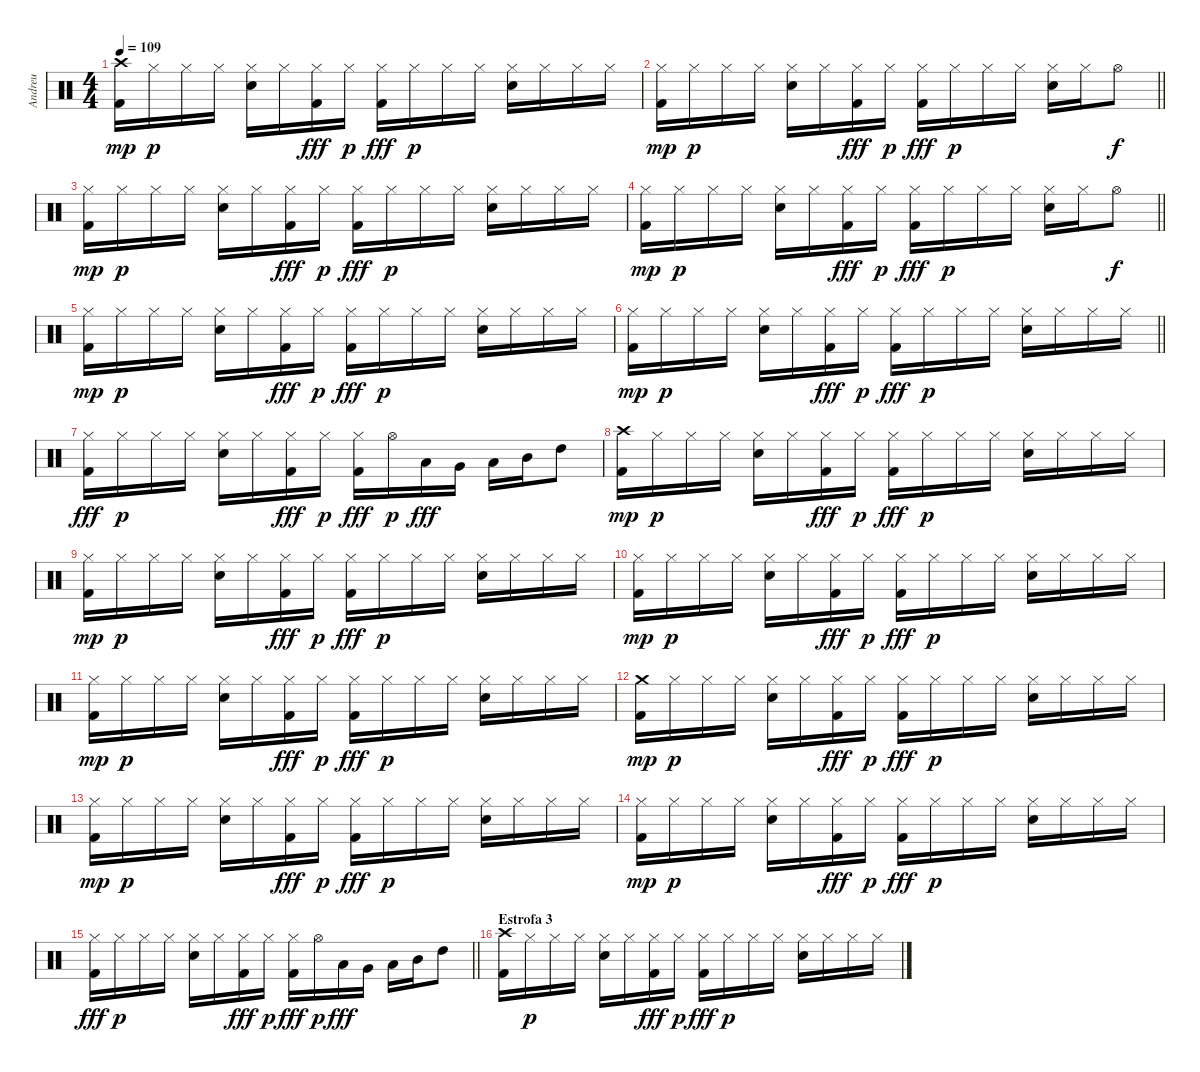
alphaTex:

\track ("Andreu" "Andreu") {instrument percussion}
\staff {score}
\articulation defaults
\ts (4 4)
\tempo 109
\clef neutral
\ks c
("Crash high (hit)" "Kick (hit) 2").16{dy mp} "Hi-Hat (closed)".16{dy p} "Hi-Hat (closed)".16 "Hi-Hat (closed)".16 ("Hi-Hat (closed)" "Snare (hit) 2").16 "Hi-Hat (closed)".16 ("Hi-Hat (closed)" "Kick (hit) 2").16{dy fff} "Hi-Hat (closed)".16{dy p} ("Hi-Hat (closed)" "Kick (hit) 2").16{dy fff} "Hi-Hat (closed)".16{dy p} "Hi-Hat (closed)".16 "Hi-Hat (closed)".16 ("Hi-Hat (closed)" "Snare (hit) 2").16 "Hi-Hat (closed)".16 "Hi-Hat (closed)".16 "Hi-Hat (closed)".16 |
\barLineRight lightlight
("Hi-Hat (closed)" "Kick (hit) 2").16{dy mp} "Hi-Hat (closed)".16{dy p} "Hi-Hat (closed)".16 "Hi-Hat (closed)".16 ("Hi-Hat (closed)" "Snare (hit) 2").16 "Hi-Hat (closed)".16 ("Hi-Hat (closed)" "Kick (hit) 2").16{dy fff} "Hi-Hat (closed)".16{dy p} ("Hi-Hat (closed)" "Kick (hit) 2").16{dy fff} "Hi-Hat (closed)".16{dy p} "Hi-Hat (closed)".16 "Hi-Hat (closed)".16 ("Hi-Hat (closed)" "Snare (hit) 2").16 "Hi-Hat (closed)".16 "Hi-Hat (open)".8{dy f} |
("Hi-Hat (closed)" "Kick (hit) 2").16{dy mp} "Hi-Hat (closed)".16{dy p} "Hi-Hat (closed)".16 "Hi-Hat (closed)".16 ("Hi-Hat (closed)" "Snare (hit) 2").16 "Hi-Hat (closed)".16 ("Hi-Hat (closed)" "Kick (hit) 2").16{dy fff} "Hi-Hat (closed)".16{dy p} ("Hi-Hat (closed)" "Kick (hit) 2").16{dy fff} "Hi-Hat (closed)".16{dy p} "Hi-Hat (closed)".16 "Hi-Hat (closed)".16 ("Hi-Hat (closed)" "Snare (hit) 2").16 "Hi-Hat (closed)".16 "Hi-Hat (closed)".16 "Hi-Hat (closed)".16 |
\barLineRight lightlight
("Hi-Hat (closed)" "Kick (hit) 2").16{dy mp} "Hi-Hat (closed)".16{dy p} "Hi-Hat (closed)".16 "Hi-Hat (closed)".16 ("Hi-Hat (closed)" "Snare (hit) 2").16 "Hi-Hat (closed)".16 ("Hi-Hat (closed)" "Kick (hit) 2").16{dy fff} "Hi-Hat (closed)".16{dy p} ("Hi-Hat (closed)" "Kick (hit) 2").16{dy fff} "Hi-Hat (closed)".16{dy p} "Hi-Hat (closed)".16 "Hi-Hat (closed)".16 ("Hi-Hat (closed)" "Snare (hit) 2").16 "Hi-Hat (closed)".16 "Hi-Hat (open)".8{dy f} |
("Hi-Hat (closed)" "Kick (hit) 2").16{dy mp} "Hi-Hat (closed)".16{dy p} "Hi-Hat (closed)".16 "Hi-Hat (closed)".16 ("Hi-Hat (closed)" "Snare (hit) 2").16 "Hi-Hat (closed)".16 ("Hi-Hat (closed)" "Kick (hit) 2").16{dy fff} "Hi-Hat (closed)".16{dy p} ("Hi-Hat (closed)" "Kick (hit) 2").16{dy fff} "Hi-Hat (closed)".16{dy p} "Hi-Hat (closed)".16 "Hi-Hat (closed)".16 ("Hi-Hat (closed)" "Snare (hit) 2").16 "Hi-Hat (closed)".16 "Hi-Hat (closed)".16 "Hi-Hat (closed)".16 |
\barLineRight lightlight
("Hi-Hat (closed)" "Kick (hit) 2").16{dy mp} "Hi-Hat (closed)".16{dy p} "Hi-Hat (closed)".16 "Hi-Hat (closed)".16 ("Hi-Hat (closed)" "Snare (hit) 2").16 "Hi-Hat (closed)".16 ("Hi-Hat (closed)" "Kick (hit) 2").16{dy fff} "Hi-Hat (closed)".16{dy p} ("Hi-Hat (closed)" "Kick (hit) 2").16{dy fff} "Hi-Hat (closed)".16{dy p} "Hi-Hat (closed)".16 "Hi-Hat (closed)".16 ("Hi-Hat (closed)" "Snare (hit) 2").16 "Hi-Hat (closed)".16 "Hi-Hat (closed)".16 "Hi-Hat (closed)".16 |
("Hi-Hat (closed)" "Kick (hit) 2").16{dy fff} "Hi-Hat (closed)".16{dy p} "Hi-Hat (closed)".16 "Hi-Hat (closed)".16 ("Hi-Hat (closed)" "Snare (hit) 2").16 "Hi-Hat (closed)".16 ("Hi-Hat (closed)" "Kick (hit) 2").16{dy fff} "Hi-Hat (closed)".16{dy p} ("Hi-Hat (closed)" "Kick (hit) 2").16{dy fff} "Hi-Hat (open)".16{dy p} "Low Floor Tom (hit)".16{dy fff} "Very Low Tom (hit)".16 "Low Tom (hit)".16 "Mid Tom (hit)".16 "High Tom (hit)".8 |
("Crash high (hit)" "Kick (hit) 2").16{dy mp} "Hi-Hat (closed)".16{dy p} "Hi-Hat (closed)".16 "Hi-Hat (closed)".16 ("Hi-Hat (closed)" "Snare (hit) 2").16 "Hi-Hat (closed)".16 ("Hi-Hat (closed)" "Kick (hit) 2").16{dy fff} "Hi-Hat (closed)".16{dy p} ("Hi-Hat (closed)" "Kick (hit) 2").16{dy fff} "Hi-Hat (closed)".16{dy p} "Hi-Hat (closed)".16 "Hi-Hat (closed)".16 ("Hi-Hat (closed)" "Snare (hit) 2").16 "Hi-Hat (closed)".16 "Hi-Hat (closed)".16 "Hi-Hat (closed)".16 |
("Hi-Hat (closed)" "Kick (hit) 2").16{dy mp} "Hi-Hat (closed)".16{dy p} "Hi-Hat (closed)".16 "Hi-Hat (closed)".16 ("Hi-Hat (closed)" "Snare (hit) 2").16 "Hi-Hat (closed)".16 ("Hi-Hat (closed)" "Kick (hit) 2").16{dy fff} "Hi-Hat (closed)".16{dy p} ("Hi-Hat (closed)" "Kick (hit) 2").16{dy fff} "Hi-Hat (closed)".16{dy p} "Hi-Hat (closed)".16 "Hi-Hat (closed)".16 ("Hi-Hat (closed)" "Snare (hit) 2").16 "Hi-Hat (closed)".16 "Hi-Hat (closed)".16 "Hi-Hat (closed)".16 |
("Hi-Hat (closed)" "Kick (hit) 2").16{dy mp} "Hi-Hat (closed)".16{dy p} "Hi-Hat (closed)".16 "Hi-Hat (closed)".16 ("Hi-Hat (closed)" "Snare (hit) 2").16 "Hi-Hat (closed)".16 ("Hi-Hat (closed)" "Kick (hit) 2").16{dy fff} "Hi-Hat (closed)".16{dy p} ("Hi-Hat (closed)" "Kick (hit) 2").16{dy fff} "Hi-Hat (closed)".16{dy p} "Hi-Hat (closed)".16 "Hi-Hat (closed)".16 ("Hi-Hat (closed)" "Snare (hit) 2").16 "Hi-Hat (closed)".16 "Hi-Hat (closed)".16 "Hi-Hat (closed)".16 |
("Hi-Hat (closed)" "Kick (hit) 2").16{dy mp} "Hi-Hat (closed)".16{dy p} "Hi-Hat (closed)".16 "Hi-Hat (closed)".16 ("Hi-Hat (closed)" "Snare (hit) 2").16 "Hi-Hat (closed)".16 ("Hi-Hat (closed)" "Kick (hit) 2").16{dy fff} "Hi-Hat (closed)".16{dy p} ("Hi-Hat (closed)" "Kick (hit) 2").16{dy fff} "Hi-Hat (closed)".16{dy p} "Hi-Hat (closed)".16 "Hi-Hat (closed)".16 ("Hi-Hat (closed)" "Snare (hit) 2").16 "Hi-Hat (closed)".16 "Hi-Hat (closed)".16 "Hi-Hat (closed)".16 |
("Crash medium (hit)" "Kick (hit) 2").16{dy mp} "Hi-Hat (closed)".16{dy p} "Hi-Hat (closed)".16 "Hi-Hat (closed)".16 ("Hi-Hat (closed)" "Snare (hit) 2").16 "Hi-Hat (closed)".16 ("Hi-Hat (closed)" "Kick (hit) 2").16{dy fff} "Hi-Hat (closed)".16{dy p} ("Hi-Hat (closed)" "Kick (hit) 2").16{dy fff} "Hi-Hat (closed)".16{dy p} "Hi-Hat (closed)".16 "Hi-Hat (closed)".16 ("Hi-Hat (closed)" "Snare (hit) 2").16 "Hi-Hat (closed)".16 "Hi-Hat (closed)".16 "Hi-Hat (closed)".16 |
("Hi-Hat (closed)" "Kick (hit) 2").16{dy mp} "Hi-Hat (closed)".16{dy p} "Hi-Hat (closed)".16 "Hi-Hat (closed)".16 ("Hi-Hat (closed)" "Snare (hit) 2").16 "Hi-Hat (closed)".16 ("Hi-Hat (closed)" "Kick (hit) 2").16{dy fff} "Hi-Hat (closed)".16{dy p} ("Hi-Hat (closed)" "Kick (hit) 2").16{dy fff} "Hi-Hat (closed)".16{dy p} "Hi-Hat (closed)".16 "Hi-Hat (closed)".16 ("Hi-Hat (closed)" "Snare (hit) 2").16 "Hi-Hat (closed)".16 "Hi-Hat (closed)".16 "Hi-Hat (closed)".16 |
("Hi-Hat (closed)" "Kick (hit) 2").16{dy mp} "Hi-Hat (closed)".16{dy p} "Hi-Hat (closed)".16 "Hi-Hat (closed)".16 ("Hi-Hat (closed)" "Snare (hit) 2").16 "Hi-Hat (closed)".16 ("Hi-Hat (closed)" "Kick (hit) 2").16{dy fff} "Hi-Hat (closed)".16{dy p} ("Hi-Hat (closed)" "Kick (hit) 2").16{dy fff} "Hi-Hat (closed)".16{dy p} "Hi-Hat (closed)".16 "Hi-Hat (closed)".16 ("Hi-Hat (closed)" "Snare (hit) 2").16 "Hi-Hat (closed)".16 "Hi-Hat (closed)".16 "Hi-Hat (closed)".16 |
\barLineRight lightlight
("Hi-Hat (closed)" "Kick (hit) 2").16{dy fff} "Hi-Hat (closed)".16{dy p} "Hi-Hat (closed)".16 "Hi-Hat (closed)".16 ("Hi-Hat (closed)" "Snare (hit) 2").16 "Hi-Hat (closed)".16 ("Hi-Hat (closed)" "Kick (hit) 2").16{dy fff} "Hi-Hat (closed)".16{dy p} ("Hi-Hat (closed)" "Kick (hit) 2").16{dy fff} "Hi-Hat (open)".16{dy p} "Low Floor Tom (hit)".16{dy fff} "Very Low Tom (hit)".16 "Low Tom (hit)".16 "Mid Tom (hit)".16 "High Tom (hit)".8 |
\section ("" "Estrofa 3")
("Crash high (hit)" "Kick (hit) 2").16 "Hi-Hat (closed)".16{dy p} "Hi-Hat (closed)".16 "Hi-Hat (closed)".16 ("Hi-Hat (closed)" "Snare (hit) 2").16 "Hi-Hat (closed)".16 ("Hi-Hat (closed)" "Kick (hit) 2").16{dy fff} "Hi-Hat (closed)".16{dy p} ("Hi-Hat (closed)" "Kick (hit) 2").16{dy fff} "Hi-Hat (closed)".16{dy p} "Hi-Hat (closed)".16 "Hi-Hat (closed)".16 ("Hi-Hat (closed)" "Snare (hit) 2").16 "Hi-Hat (closed)".16 "Hi-Hat (closed)".16 "Hi-Hat (closed)".16
